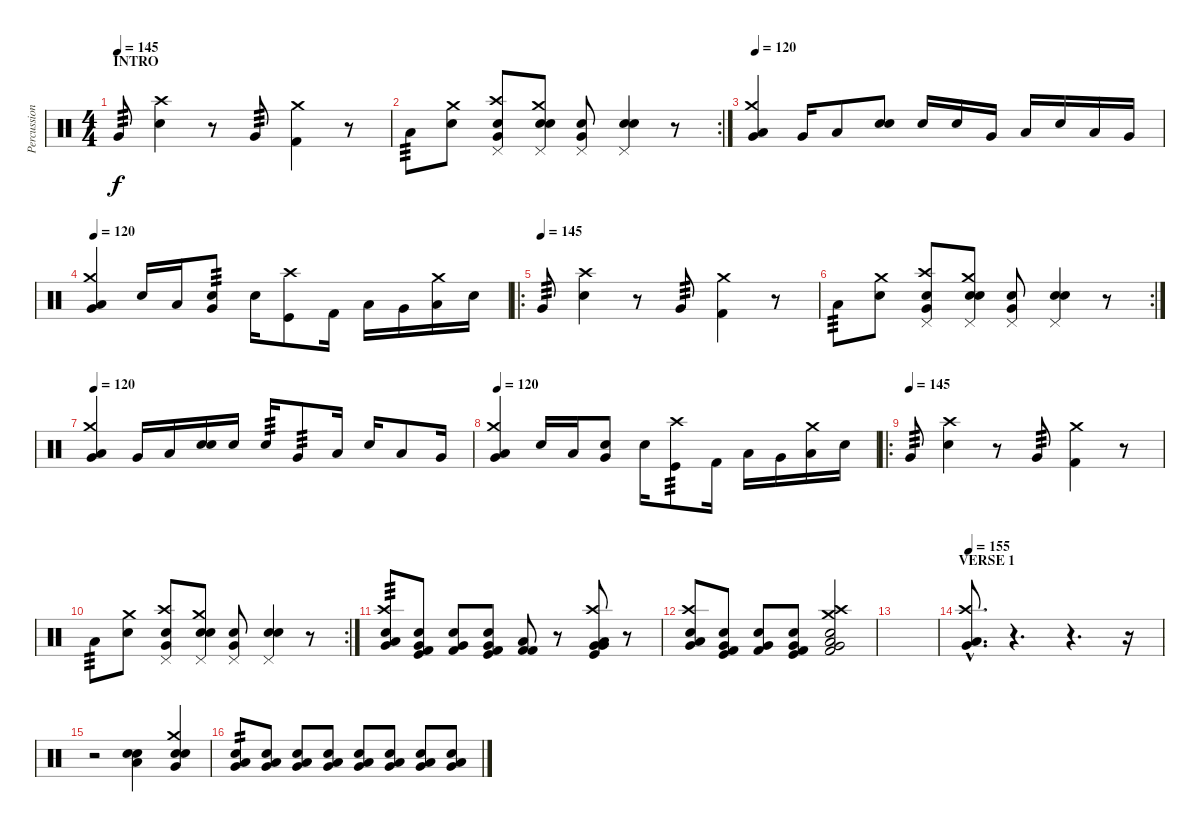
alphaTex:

\track ("Percussion-group" "Percussion") {instrument percussion}
\staff {score}
\articulation defaults
\ts (4 4)
\section ("" "INTRO")
\tempo 145
\clef neutral
\ks c "Very Low Tom (hit)".8{tp 3 dy f}
("Snare (hit) 2" "Crash high (hit)").4 r.8 "Very Low Tom (hit)".8{tp 3} ("Kick (hit) 2" "Crash medium (hit)").4 r.8 |
\rc 2 "Low Tom (hit)".8{tp 3}
("Snare (hit) 2" "Crash medium (hit)").8 ("Electric Snare (hit)" "Very Low Tom (hit)" "Pedal Hi-Hat (hit)" "Crash high (hit)").8 ("Snare (hit) 2" "Electric Snare (hit)" "Pedal Hi-Hat (hit)" "Crash medium (hit)").8 ("Electric Snare (hit)" "Very Low Tom (hit)" "Pedal Hi-Hat (hit)").8 ("Snare (hit) 2" "Electric Snare (hit)" "Pedal Hi-Hat (hit)").4 r.8 |
\tempo 120
("Very Low Tom (hit)" "Low Tom (hit)" "Crash medium (hit)").4 "Very Low Tom (hit)".16 "Low Tom (hit)".8 ("Electric Snare (hit)" "Snare (hit) 2").8 "Snare (hit) 2".16 "Electric Snare (hit)".16 "Very Low Tom (hit)".16 "Low Tom (hit)".16 "Electric Snare (hit)".16 "Low Tom (hit)".16 "Very Low Tom (hit)".16 |
\tempo 120
("Very Low Tom (hit)" "Low Tom (hit)" "Crash medium (hit)").4 "Electric Snare (hit)".16 "Low Tom (hit)".16 ("Very Low Tom (hit)" "Snare (hit) 2").8{tp 3} "Snare (hit) 2".16 ("Kick (hit)" "Crash high (hit)").8 "Kick (hit) 2".16 "Low Tom (hit)".16 "Very Low Tom (hit)".16 ("Low Tom (hit)" "Crash medium (hit)").16 "Electric Snare (hit)".16 |
\ro
\tempo (145)
"Very Low Tom (hit)".8{tp 3} ("Snare (hit) 2" "Crash high (hit)").4 r.8 "Very Low Tom (hit)".8{tp 3} ("Kick (hit) 2" "Crash medium (hit)").4 r.8 |
\rc 2 "Low Tom (hit)".8{tp 3}
("Snare (hit) 2" "Crash medium (hit)").8 ("Electric Snare (hit)" "Very Low Tom (hit)" "Pedal Hi-Hat (hit)" "Crash high (hit)").8 ("Snare (hit) 2" "Electric Snare (hit)" "Pedal Hi-Hat (hit)" "Crash medium (hit)").8 ("Electric Snare (hit)" "Very Low Tom (hit)" "Pedal Hi-Hat (hit)").8 ("Snare (hit) 2" "Electric Snare (hit)" "Pedal Hi-Hat (hit)").4 r.8 |
\tempo 120
("Very Low Tom (hit)" "Low Tom (hit)" "Crash medium (hit)").4 "Very Low Tom (hit)".16 "Low Tom (hit)".16 ("Electric Snare (hit)" "Snare (hit) 2").16 "Snare (hit) 2".16 "Electric Snare (hit)".16{tp 3} "Very Low Tom (hit)".8{tp 3} "Low Tom (hit)".16 "Electric Snare (hit)".16 "Low Tom (hit)".8 "Very Low Tom (hit)".16 |
\tempo 120
("Very Low Tom (hit)" "Low Tom (hit)" "Crash medium (hit)").4 "Electric Snare (hit)".16 "Low Tom (hit)".16 ("Very Low Tom (hit)" "Snare (hit) 2").8 "Snare (hit) 2".16 ("Kick (hit)" "Crash high (hit)").8{tp 3} "Kick (hit) 2".16 "Low Tom (hit)".16 "Very Low Tom (hit)".16 ("Low Tom (hit)" "Crash medium (hit)").16 "Electric Snare (hit)".16 |
\ro
\tempo (145)
"Very Low Tom (hit)".8{tp 3} ("Snare (hit) 2" "Crash high (hit)").4 r.8 "Very Low Tom (hit)".8{tp 3} ("Kick (hit) 2" "Crash medium (hit)").4 r.8 |
\rc 2 "Low Tom (hit)".8{tp 3}
("Snare (hit) 2" "Crash medium (hit)").8 ("Electric Snare (hit)" "Very Low Tom (hit)" "Pedal Hi-Hat (hit)" "Crash high (hit)").8 ("Snare (hit) 2" "Electric Snare (hit)" "Pedal Hi-Hat (hit)" "Crash medium (hit)").8 ("Electric Snare (hit)" "Very Low Tom (hit)" "Pedal Hi-Hat (hit)").8 ("Snare (hit) 2" "Electric Snare (hit)" "Pedal Hi-Hat (hit)").4 r.8 |
("Low Tom (hit)" "Very Low Tom (hit)" "Electric Snare (hit)" "Crash high (hit)").8{tp 3} ("Very Low Tom (hit)" "Kick (hit)" "Kick (hit) 2" "Snare (hit) 2").8 ("Very Low Tom (hit)" "Electric Snare (hit)" "Kick (hit) 2").8 ("Snare (hit) 2" "Kick (hit) 2" "Kick (hit)" "Very Low Tom (hit)").8 ("Low Tom (hit)" "Kick (hit) 2" "Kick (hit) 2").8 r.8 ("Kick (hit)" "Very Low Tom (hit)" "Low Tom (hit)" "Very Low Tom (hit)" "Crash high (hit)").8 r.8 |
("Low Tom (hit)" "Very Low Tom (hit)" "Electric Snare (hit)" "Crash high (hit)").8 ("Very Low Tom (hit)" "Kick (hit)" "Kick (hit) 2" "Snare (hit) 2").8 ("Very Low Tom (hit)" "Electric Snare (hit)" "Kick (hit) 2").8 ("Snare (hit) 2" "Kick (hit) 2" "Kick (hit)" "Very Low Tom (hit)").8 ("Low Tom (hit)" "Kick (hit) 2" "Snare (hit) 2" "Very Low Tom (hit)" "Crash medium (hit)" "Crash high (hit)").2 |
|
\section ("" "VERSE 1")
\tempo 155
("Very Low Tom (hit)"{hac} "Low Tom (hit)"{hac} "Crash high (hit)"{hac}).8{d} r.4{d} r.4{d} r.16 |
r.2 ("Low Tom (hit)" "Electric Snare (hit)" "Snare (hit) 2").4 ("Very Low Tom (hit)" "Electric Snare (hit)" "Snare (hit) 2" "Crash medium (hit)").4 |
("Low Tom (hit)" "Very Low Tom (hit)" "Electric Snare (hit)").8{tp 2} ("Low Tom (hit)" "Very Low Tom (hit)" "Electric Snare (hit)").8 ("Low Tom (hit)" "Very Low Tom (hit)" "Electric Snare (hit)").8 ("Low Tom (hit)" "Very Low Tom (hit)" "Electric Snare (hit)").8 ("Low Tom (hit)" "Very Low Tom (hit)" "Electric Snare (hit)").8 ("Low Tom (hit)" "Very Low Tom (hit)" "Electric Snare (hit)").8 ("Low Tom (hit)" "Very Low Tom (hit)" "Electric Snare (hit)").8 ("Low Tom (hit)" "Very Low Tom (hit)" "Electric Snare (hit)").8
